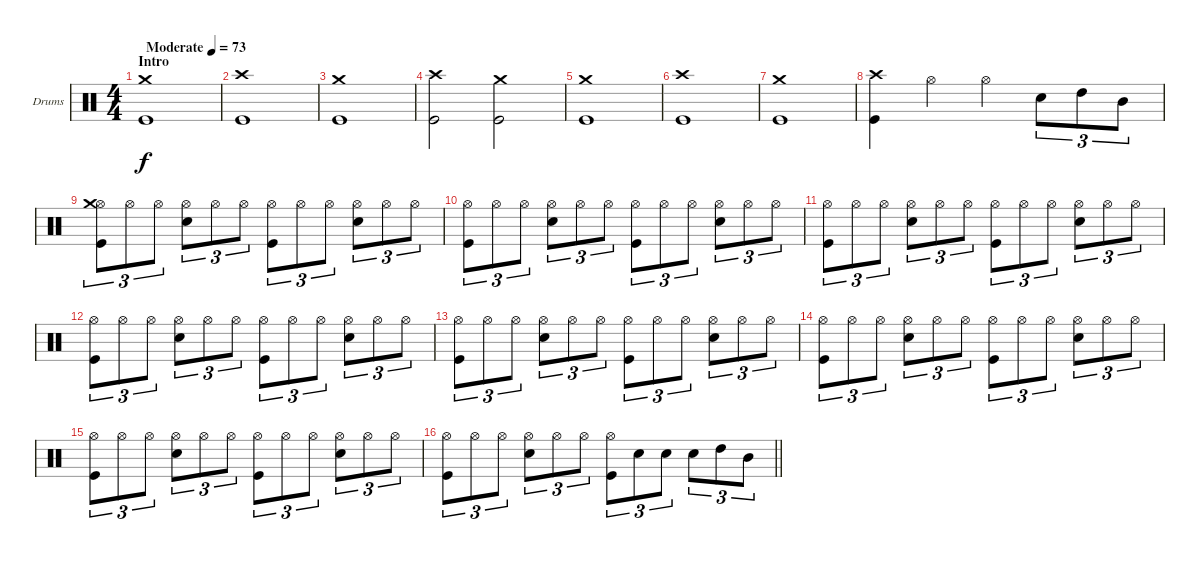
\bracketExtendMode groupsimilarinstruments
\firstSystemTrackNameOrientation horizontal
\otherSystemsTrackNameOrientation horizontal
\track ("Drumkit" "Drums") {instrument percussion}
\staff {score}
\articulation defaults
\ts (4 4)
\beaming (8 2 2 2 2)
\section ("" "Intro")
\tempo (73 "Moderate")
\clef neutral
\ks c
("Kick (hit)" "Crash medium (hit)").1{dy f} |
("Kick (hit)" "Crash high (hit)").1 |
("Kick (hit)" "Crash medium (hit)").1 |
("Kick (hit)" "Crash high (hit)").2 ("Kick (hit)" "Crash medium (hit)").2 |
("Kick (hit)" "Crash medium (hit)").1 |
("Kick (hit)" "Crash high (hit)").1 |
("Kick (hit)" "Crash medium (hit)").1 |
("Kick (hit)" "Crash high (hit)").4 "Hi-Hat (open)".4 "Hi-Hat (open)".4 "Snare (hit) 2".8{tu (3 2)} "High Tom (hit)".8{tu (3 2)} "Mid Tom (hit)".8{tu (3 2)} |
("Kick (hit)" "Hi-Hat (open)" "Crash medium (hit)").8{tu (3 2)} "Hi-Hat (open)".8{tu (3 2)} "Hi-Hat (open)".8{tu (3 2)} ("Snare (hit) 2" "Hi-Hat (open)").8{tu (3 2)} "Hi-Hat (open)".8{tu (3 2)} "Hi-Hat (open)".8{tu (3 2)} ("Kick (hit)" "Hi-Hat (open)").8{tu (3 2)} "Hi-Hat (open)".8{tu (3 2)} "Hi-Hat (open)".8{tu (3 2)} ("Snare (hit) 2" "Hi-Hat (open)").8{tu (3 2)} "Hi-Hat (open)".8{tu (3 2)} "Hi-Hat (open)".8{tu (3 2)} |
("Kick (hit)" "Hi-Hat (open)").8{tu (3 2)} "Hi-Hat (open)".8{tu (3 2)} "Hi-Hat (open)".8{tu (3 2)} ("Snare (hit) 2" "Hi-Hat (open)").8{tu (3 2)} "Hi-Hat (open)".8{tu (3 2)} "Hi-Hat (open)".8{tu (3 2)} ("Kick (hit)" "Hi-Hat (open)").8{tu (3 2)} "Hi-Hat (open)".8{tu (3 2)} "Hi-Hat (open)".8{tu (3 2)} ("Snare (hit) 2" "Hi-Hat (open)").8{tu (3 2)} "Hi-Hat (open)".8{tu (3 2)} "Hi-Hat (open)".8{tu (3 2)} |
("Kick (hit)" "Hi-Hat (open)").8{tu (3 2)} "Hi-Hat (open)".8{tu (3 2)} "Hi-Hat (open)".8{tu (3 2)} ("Snare (hit) 2" "Hi-Hat (open)").8{tu (3 2)} "Hi-Hat (open)".8{tu (3 2)} "Hi-Hat (open)".8{tu (3 2)} ("Kick (hit)" "Hi-Hat (open)").8{tu (3 2)} "Hi-Hat (open)".8{tu (3 2)} "Hi-Hat (open)".8{tu (3 2)} ("Snare (hit) 2" "Hi-Hat (open)").8{tu (3 2)} "Hi-Hat (open)".8{tu (3 2)} "Hi-Hat (open)".8{tu (3 2)} |
("Kick (hit)" "Hi-Hat (open)").8{tu (3 2)} "Hi-Hat (open)".8{tu (3 2)} "Hi-Hat (open)".8{tu (3 2)} ("Snare (hit) 2" "Hi-Hat (open)").8{tu (3 2)} "Hi-Hat (open)".8{tu (3 2)} "Hi-Hat (open)".8{tu (3 2)} ("Kick (hit)" "Hi-Hat (open)").8{tu (3 2)} "Hi-Hat (open)".8{tu (3 2)} "Hi-Hat (open)".8{tu (3 2)} ("Snare (hit) 2" "Hi-Hat (open)").8{tu (3 2)} "Hi-Hat (open)".8{tu (3 2)} "Hi-Hat (open)".8{tu (3 2)} |
("Kick (hit)" "Hi-Hat (open)").8{tu (3 2)} "Hi-Hat (open)".8{tu (3 2)} "Hi-Hat (open)".8{tu (3 2)} ("Snare (hit) 2" "Hi-Hat (open)").8{tu (3 2)} "Hi-Hat (open)".8{tu (3 2)} "Hi-Hat (open)".8{tu (3 2)} ("Kick (hit)" "Hi-Hat (open)").8{tu (3 2)} "Hi-Hat (open)".8{tu (3 2)} "Hi-Hat (open)".8{tu (3 2)} ("Snare (hit) 2" "Hi-Hat (open)").8{tu (3 2)} "Hi-Hat (open)".8{tu (3 2)} "Hi-Hat (open)".8{tu (3 2)} |
("Kick (hit)" "Hi-Hat (open)").8{tu (3 2)} "Hi-Hat (open)".8{tu (3 2)} "Hi-Hat (open)".8{tu (3 2)} ("Snare (hit) 2" "Hi-Hat (open)").8{tu (3 2)} "Hi-Hat (open)".8{tu (3 2)} "Hi-Hat (open)".8{tu (3 2)} ("Kick (hit)" "Hi-Hat (open)").8{tu (3 2)} "Hi-Hat (open)".8{tu (3 2)} "Hi-Hat (open)".8{tu (3 2)} ("Snare (hit) 2" "Hi-Hat (open)").8{tu (3 2)} "Hi-Hat (open)".8{tu (3 2)} "Hi-Hat (open)".8{tu (3 2)} |
("Kick (hit)" "Hi-Hat (open)").8{tu (3 2)} "Hi-Hat (open)".8{tu (3 2)} "Hi-Hat (open)".8{tu (3 2)} ("Snare (hit) 2" "Hi-Hat (open)").8{tu (3 2)} "Hi-Hat (open)".8{tu (3 2)} "Hi-Hat (open)".8{tu (3 2)} ("Kick (hit)" "Hi-Hat (open)").8{tu (3 2)} "Hi-Hat (open)".8{tu (3 2)} "Hi-Hat (open)".8{tu (3 2)} ("Snare (hit) 2" "Hi-Hat (open)").8{tu (3 2)} "Hi-Hat (open)".8{tu (3 2)} "Hi-Hat (open)".8{tu (3 2)} |
\barLineRight lightlight
("Kick (hit)" "Hi-Hat (open)").8{tu (3 2)} "Hi-Hat (open)".8{tu (3 2)} "Hi-Hat (open)".8{tu (3 2)} ("Snare (hit) 2" "Hi-Hat (open)").8{tu (3 2)} "Hi-Hat (open)".8{tu (3 2)} "Hi-Hat (open)".8{tu (3 2)} ("Kick (hit)" "Hi-Hat (open)").8{tu (3 2)} "Snare (hit) 2".8{tu (3 2)} "Snare (hit) 2".8{tu (3 2)} "Snare (hit) 2".8{tu (3 2)} "High Tom (hit)".8{tu (3 2)} "Mid Tom (hit)".8{tu (3 2)}
